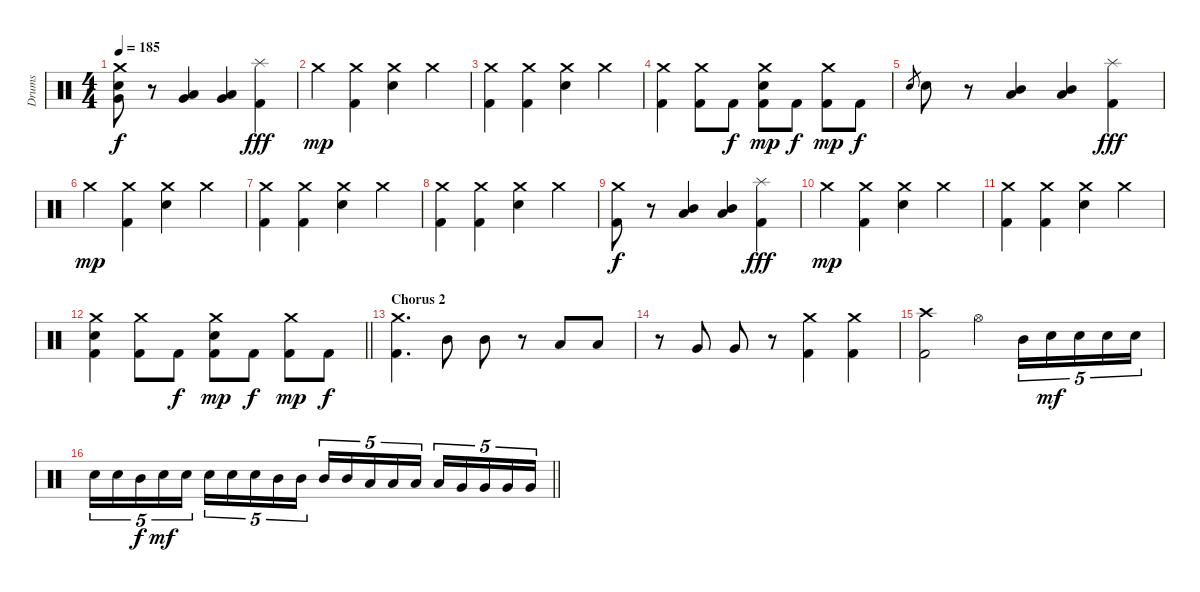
\track ("Drums" "Drums") {instrument percussion}
\staff {score}
\articulation defaults
\ts (4 4)
\tempo 185
\clef neutral
\ks c
("Crash medium (hit)" "Very Low Tom (hit)" "Electric Snare (hit)").8{dy f} r.8 ("Low Tom (hit)" "Very Low Tom (hit)").4 ("Low Tom (hit)" "Very Low Tom (hit)").4 ("Splash (hit)" "Kick (hit) 2").4{dy fff} |
"Crash medium (hit)".4{dy mp} ("Crash medium (hit)" "Kick (hit) 2").4 ("Crash medium (hit)" "Electric Snare (hit)").4 "Crash medium (hit)".4 |
("Crash medium (hit)" "Kick (hit) 2").4 ("Crash medium (hit)" "Kick (hit) 2").4 ("Crash medium (hit)" "Electric Snare (hit)").4 "Crash medium (hit)".4 |
("Crash medium (hit)" "Kick (hit) 2").4 ("Crash medium (hit)" "Kick (hit) 2").8 "Kick (hit) 2".8{dy f} ("Crash medium (hit)" "Electric Snare (hit)" "Kick (hit) 2").8{dy mp} "Kick (hit) 2".8{dy f} ("Crash medium (hit)" "Kick (hit) 2").8{dy mp} "Kick (hit) 2".8{dy f} |
"Electric Snare (hit)".8{gr} "Electric Snare (hit)".8 r.8 ("Mid Tom (hit)" "Low Tom (hit)").4 ("Mid Tom (hit)" "Low Tom (hit)").4 ("Splash (hit)" "Kick (hit) 2").4{dy fff} |
"Crash medium (hit)".4{dy mp} ("Crash medium (hit)" "Kick (hit) 2").4 ("Crash medium (hit)" "Electric Snare (hit)").4 "Crash medium (hit)".4 |
("Crash medium (hit)" "Kick (hit) 2").4 ("Crash medium (hit)" "Kick (hit) 2").4 ("Crash medium (hit)" "Electric Snare (hit)").4 "Crash medium (hit)".4 |
("Crash medium (hit)" "Kick (hit) 2").4 ("Crash medium (hit)" "Kick (hit) 2").4 ("Crash medium (hit)" "Electric Snare (hit)").4 "Crash medium (hit)".4 |
("Crash medium (hit)" "Kick (hit) 2").8{dy f} r.8 ("Mid Tom (hit)" "Low Tom (hit)").4 ("Mid Tom (hit)" "Low Tom (hit)").4 ("Splash (hit)" "Kick (hit) 2").4{dy fff} |
"Crash medium (hit)".4{dy mp} ("Crash medium (hit)" "Kick (hit) 2").4 ("Crash medium (hit)" "Electric Snare (hit)").4 "Crash medium (hit)".4 |
("Crash medium (hit)" "Kick (hit) 2").4 ("Crash medium (hit)" "Kick (hit) 2").4 ("Crash medium (hit)" "Electric Snare (hit)").4 "Crash medium (hit)".4 |
\barLineRight lightlight
("Crash medium (hit)" "Electric Snare (hit)" "Kick (hit) 2").4 ("Crash medium (hit)" "Kick (hit) 2").8 "Kick (hit) 2".8{dy f} ("Crash medium (hit)" "Electric Snare (hit)" "Kick (hit) 2").8{dy mp} "Kick (hit) 2".8{dy f} ("Crash medium (hit)" "Kick (hit) 2").8{dy mp} "Kick (hit) 2".8{dy f} |
\section ("" "Chorus 2")
("Crash medium (hit)" "Kick (hit) 2").4{d} "Mid Tom (hit)".8 "Mid Tom (hit)".8 r.8 "Low Tom (hit)".8 "Low Tom (hit)".8 |
r.8 "Very Low Tom (hit)".8 "Very Low Tom (hit)".8 r.8 ("Crash medium (hit)" "Kick (hit) 2").4 ("Crash medium (hit)" "Kick (hit) 2").4 |
("Crash high (hit)" "Kick (hit) 2").2 "Hi-Hat (open)".4 "Mid Tom (hit)".16{tu (5 4)} "Electric Snare (hit)".16{tu (5 4) dy mf} "Electric Snare (hit)".16{tu (5 4)} "Electric Snare (hit)".16{tu (5 4)} "Electric Snare (hit)".16{tu (5 4)} |
\barLineRight lightlight "Electric Snare (hit)".16{tu (5 4)} "Electric Snare (hit)".16{tu (5 4)} "Mid Tom (hit)".16{tu (5 4) dy f} "Electric Snare (hit)".16{tu (5 4) dy mf} "Electric Snare (hit)".16{tu (5 4)} "Electric Snare (hit)".16{tu (5 4)} "Electric Snare (hit)".16{tu (5 4)} "Electric Snare (hit)".16{tu (5 4)} "Mid Tom (hit)".16{tu (5 4)} "Mid Tom (hit)".16{tu (5 4)} "Mid Tom (hit)".16{tu (5 4)} "Mid Tom (hit)".16{tu (5 4)} "Low Tom (hit)".16{tu (5 4)} "Low Tom (hit)".16{tu (5 4)} "Low Tom (hit)".16{tu (5 4)} "Low Tom (hit)".16{tu (5 4)} "Very Low Tom (hit)".16{tu (5 4)} "Very Low Tom (hit)".16{tu (5 4)} "Very Low Tom (hit)".16{tu (5 4)} "Very Low Tom (hit)".16{tu (5 4)}
